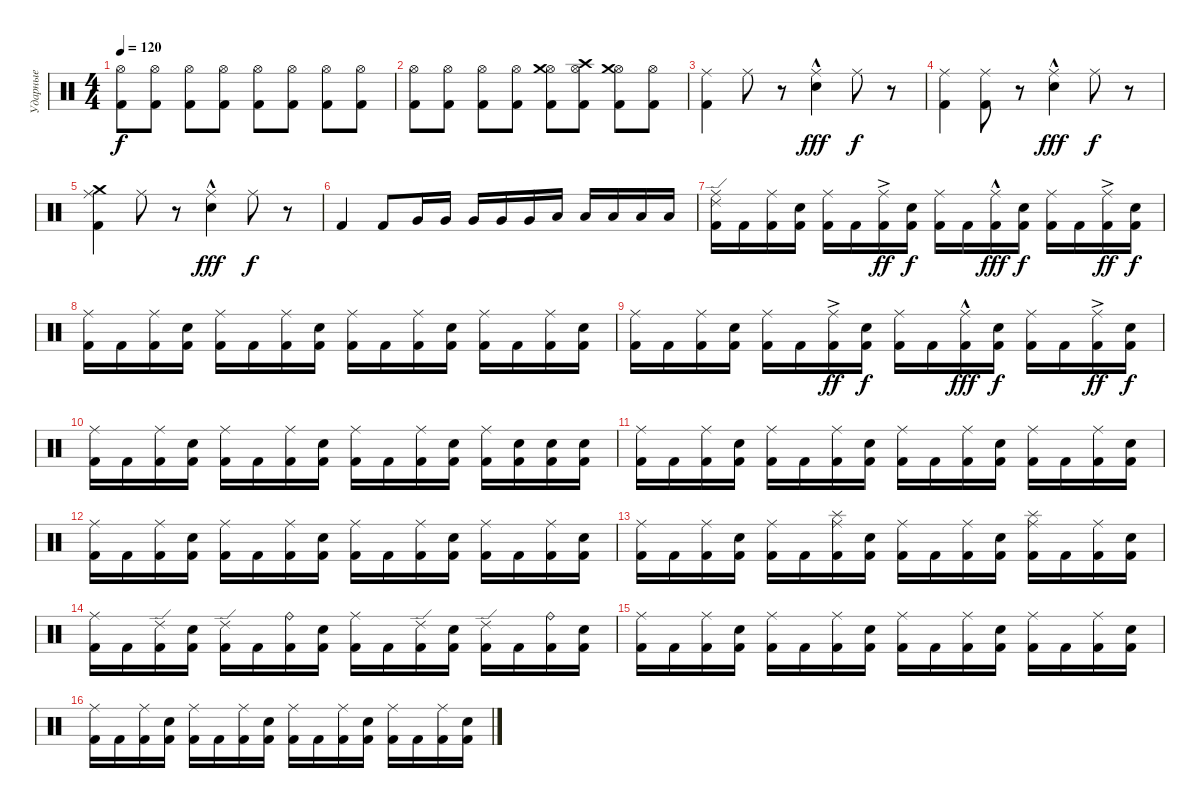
\track ("Ударные" "Ударные") {instrument percussion}
\staff {score}
\articulation defaults
\ts (4 4)
\tempo 120
\clef neutral
\ks c
("Kick (hit) 2" "Hi-Hat (open)").8{dy f} ("Kick (hit) 2" "Hi-Hat (open)").8 ("Kick (hit) 2" "Hi-Hat (open)").8 ("Kick (hit) 2" "Hi-Hat (open)").8 ("Kick (hit) 2" "Hi-Hat (open)").8 ("Kick (hit) 2" "Hi-Hat (open)").8 ("Kick (hit) 2" "Hi-Hat (open)").8 ("Kick (hit) 2" "Hi-Hat (open)").8 |
("Kick (hit) 2" "Hi-Hat (open)").8 ("Kick (hit) 2" "Hi-Hat (open)").8 ("Kick (hit) 2" "Hi-Hat (open)").8 ("Kick (hit) 2" "Hi-Hat (open)").8 ("Kick (hit) 2" "Hi-Hat (open)" "Crash medium (hit)").8 ("Kick (hit) 2" "Hi-Hat (open)" "Crash high (hit)").8 ("Kick (hit) 2" "Hi-Hat (open)" "Crash medium (hit)").8 ("Kick (hit) 2" "Hi-Hat (open)").8 |
("Kick (hit) 2" "Ride (middle)").4 "Ride (middle)".8 r.8 ("Electric Snare (hit)"{hac} "Ride (middle)").4{dy fff} "Ride (middle)".8{dy f} r.8 |
("Kick (hit) 2" "Ride (middle)").4 ("Kick (hit) 2" "Ride (middle)").8 r.8 ("Electric Snare (hit)"{hac} "Ride (middle)").4{dy fff} "Ride (middle)".8{dy f} r.8 |
("Kick (hit) 2" "Crash medium (hit)" "Ride (middle)").4 "Ride (middle)".8 r.8 ("Electric Snare (hit)"{hac} "Ride (middle)").4{dy fff} "Ride (middle)".8{dy f} r.8 |
"Kick (hit) 2".4 "Kick (hit) 2".8 "Very Low Tom (hit)".16 "Very Low Tom (hit)".16 "Very Low Tom (hit)".16 "Very Low Tom (hit)".16 "Very Low Tom (hit)".16 "Low Floor Tom (hit)".16 "Low Floor Tom (hit)".16 "Low Floor Tom (hit)".16 "Low Floor Tom (hit)".16 "Low Floor Tom (hit)".16 |
("Kick (hit) 2" "Ride (middle)" "Ride (edge) 2").16 "Kick (hit) 2".16 ("Kick (hit) 2" "Ride (middle)").16 ("Electric Snare (hit)" "Kick (hit) 2").16 ("Kick (hit) 2" "Ride (middle)").16 "Kick (hit) 2".16 ("Kick (hit) 2" "Ride (middle)"{ac}).16{dy ff} ("Electric Snare (hit)" "Kick (hit) 2").16{dy f} ("Kick (hit) 2" "Ride (middle)").16 "Kick (hit) 2".16 ("Kick (hit) 2" "Ride (middle)"{hac}).16{dy fff} ("Electric Snare (hit)" "Kick (hit) 2").16{dy f} ("Kick (hit) 2" "Ride (middle)").16 "Kick (hit) 2".16 ("Kick (hit) 2" "Ride (middle)"{ac}).16{dy ff} ("Electric Snare (hit)" "Kick (hit) 2").16{dy f} |
("Kick (hit) 2" "Ride (middle)").16 "Kick (hit) 2".16 ("Kick (hit) 2" "Ride (middle)").16 ("Electric Snare (hit)" "Kick (hit) 2").16 ("Kick (hit) 2" "Ride (middle)").16 "Kick (hit) 2".16 ("Kick (hit) 2" "Ride (middle)").16 ("Electric Snare (hit)" "Kick (hit) 2").16 ("Kick (hit) 2" "Ride (middle)").16 "Kick (hit) 2".16 ("Kick (hit) 2" "Ride (middle)").16 ("Electric Snare (hit)" "Kick (hit) 2").16 ("Kick (hit) 2" "Ride (middle)").16 "Kick (hit) 2".16 ("Kick (hit) 2" "Ride (middle)").16 ("Electric Snare (hit)" "Kick (hit) 2").16 |
("Kick (hit) 2" "Ride (middle)").16 "Kick (hit) 2".16 ("Kick (hit) 2" "Ride (middle)").16 ("Electric Snare (hit)" "Kick (hit) 2").16 ("Kick (hit) 2" "Ride (middle)").16 "Kick (hit) 2".16 ("Kick (hit) 2" "Ride (middle)"{ac}).16{dy ff} ("Electric Snare (hit)" "Kick (hit) 2").16{dy f} ("Kick (hit) 2" "Ride (middle)").16 "Kick (hit) 2".16 ("Kick (hit) 2" "Ride (middle)"{hac}).16{dy fff} ("Electric Snare (hit)" "Kick (hit) 2").16{dy f} ("Kick (hit) 2" "Ride (middle)").16 "Kick (hit) 2".16 ("Kick (hit) 2" "Ride (middle)"{ac}).16{dy ff} ("Electric Snare (hit)" "Kick (hit) 2").16{dy f} |
("Kick (hit) 2" "Ride (middle)").16 "Kick (hit) 2".16 ("Kick (hit) 2" "Ride (middle)").16 ("Electric Snare (hit)" "Kick (hit) 2").16 ("Kick (hit) 2" "Ride (middle)").16 "Kick (hit) 2".16 ("Kick (hit) 2" "Ride (middle)").16 ("Electric Snare (hit)" "Kick (hit) 2").16 ("Kick (hit) 2" "Ride (middle)").16 "Kick (hit) 2".16 ("Kick (hit) 2" "Ride (middle)").16 ("Electric Snare (hit)" "Kick (hit) 2").16 ("Kick (hit) 2" "Ride (middle)").16 ("Electric Snare (hit)" "Kick (hit) 2").16 ("Electric Snare (hit)" "Kick (hit) 2").16 ("Electric Snare (hit)" "Kick (hit) 2").16 |
("Kick (hit) 2" "Ride (middle)").16 "Kick (hit) 2".16 ("Kick (hit) 2" "Ride (middle)").16 ("Electric Snare (hit)" "Kick (hit) 2").16 ("Kick (hit) 2" "Ride (middle)").16 "Kick (hit) 2".16 ("Kick (hit) 2" "Ride (middle)").16 ("Electric Snare (hit)" "Kick (hit) 2").16 ("Kick (hit) 2" "Ride (middle)").16 "Kick (hit) 2".16 ("Kick (hit) 2" "Ride (middle)").16 ("Electric Snare (hit)" "Kick (hit) 2").16 ("Kick (hit) 2" "Ride (middle)").16 "Kick (hit) 2".16 ("Kick (hit) 2" "Ride (middle)").16 ("Electric Snare (hit)" "Kick (hit) 2").16 |
("Kick (hit) 2" "Ride (middle)").16 "Kick (hit) 2".16 ("Kick (hit) 2" "Ride (middle)").16 ("Electric Snare (hit)" "Kick (hit) 2").16 ("Kick (hit) 2" "Ride (middle)").16 "Kick (hit) 2".16 ("Kick (hit) 2" "Ride (middle)").16 ("Electric Snare (hit)" "Kick (hit) 2").16 ("Kick (hit) 2" "Ride (middle)").16 "Kick (hit) 2".16 ("Kick (hit) 2" "Ride (middle)").16 ("Electric Snare (hit)" "Kick (hit) 2").16 ("Kick (hit) 2" "Ride (middle)").16 "Kick (hit) 2".16 ("Kick (hit) 2" "Ride (middle)").16 ("Electric Snare (hit)" "Kick (hit) 2").16 |
("Kick (hit) 2" "Ride (middle)").16 "Kick (hit) 2".16 ("Kick (hit) 2" "Ride (middle)").16 ("Electric Snare (hit)" "Kick (hit) 2").16 ("Kick (hit) 2" "Ride (middle)").16 "Kick (hit) 2".16 ("Kick (hit) 2" "Ride (middle)" "Splash (hit)").16 ("Electric Snare (hit)" "Kick (hit) 2").16 ("Kick (hit) 2" "Ride (middle)").16 "Kick (hit) 2".16 ("Kick (hit) 2" "Ride (middle)").16 ("Electric Snare (hit)" "Kick (hit) 2").16 ("Kick (hit) 2" "Ride (middle)" "Splash (hit)").16 "Kick (hit) 2".16 ("Kick (hit) 2" "Ride (middle)").16 ("Electric Snare (hit)" "Kick (hit) 2").16 |
("Kick (hit) 2" "Ride (middle)").16 "Kick (hit) 2".16 ("Kick (hit) 2" "Ride (edge) 2").16 ("Electric Snare (hit)" "Kick (hit) 2").16 ("Kick (hit) 2" "Ride (edge) 2").16 "Kick (hit) 2".16 ("Kick (hit) 2" "Ride (bell)").16 ("Electric Snare (hit)" "Kick (hit) 2").16 ("Kick (hit) 2" "Ride (middle)").16 "Kick (hit) 2".16 ("Kick (hit) 2" "Ride (edge) 2").16 ("Electric Snare (hit)" "Kick (hit) 2").16 ("Kick (hit) 2" "Ride (edge) 2").16 "Kick (hit) 2".16 ("Kick (hit) 2" "Ride (bell)").16 ("Electric Snare (hit)" "Kick (hit) 2").16 |
("Kick (hit) 2" "Ride (middle)").16 "Kick (hit) 2".16 ("Kick (hit) 2" "Ride (middle)").16 ("Electric Snare (hit)" "Kick (hit) 2").16 ("Kick (hit) 2" "Ride (middle)").16 "Kick (hit) 2".16 ("Kick (hit) 2" "Ride (middle)").16 ("Electric Snare (hit)" "Kick (hit) 2").16 ("Kick (hit) 2" "Ride (middle)").16 "Kick (hit) 2".16 ("Kick (hit) 2" "Ride (middle)").16 ("Electric Snare (hit)" "Kick (hit) 2").16 ("Kick (hit) 2" "Ride (middle)").16 "Kick (hit) 2".16 ("Kick (hit) 2" "Ride (middle)").16 ("Electric Snare (hit)" "Kick (hit) 2").16 |
("Kick (hit) 2" "Ride (middle)").16 "Kick (hit) 2".16 ("Kick (hit) 2" "Ride (middle)").16 ("Electric Snare (hit)" "Kick (hit) 2").16 ("Kick (hit) 2" "Ride (middle)").16 "Kick (hit) 2".16 ("Kick (hit) 2" "Ride (middle)").16 ("Electric Snare (hit)" "Kick (hit) 2").16 ("Kick (hit) 2" "Ride (middle)").16 "Kick (hit) 2".16 ("Kick (hit) 2" "Ride (middle)").16 ("Electric Snare (hit)" "Kick (hit) 2").16 ("Kick (hit) 2" "Ride (middle)").16 "Kick (hit) 2".16 ("Kick (hit) 2" "Ride (middle)").16 ("Electric Snare (hit)" "Kick (hit) 2").16
